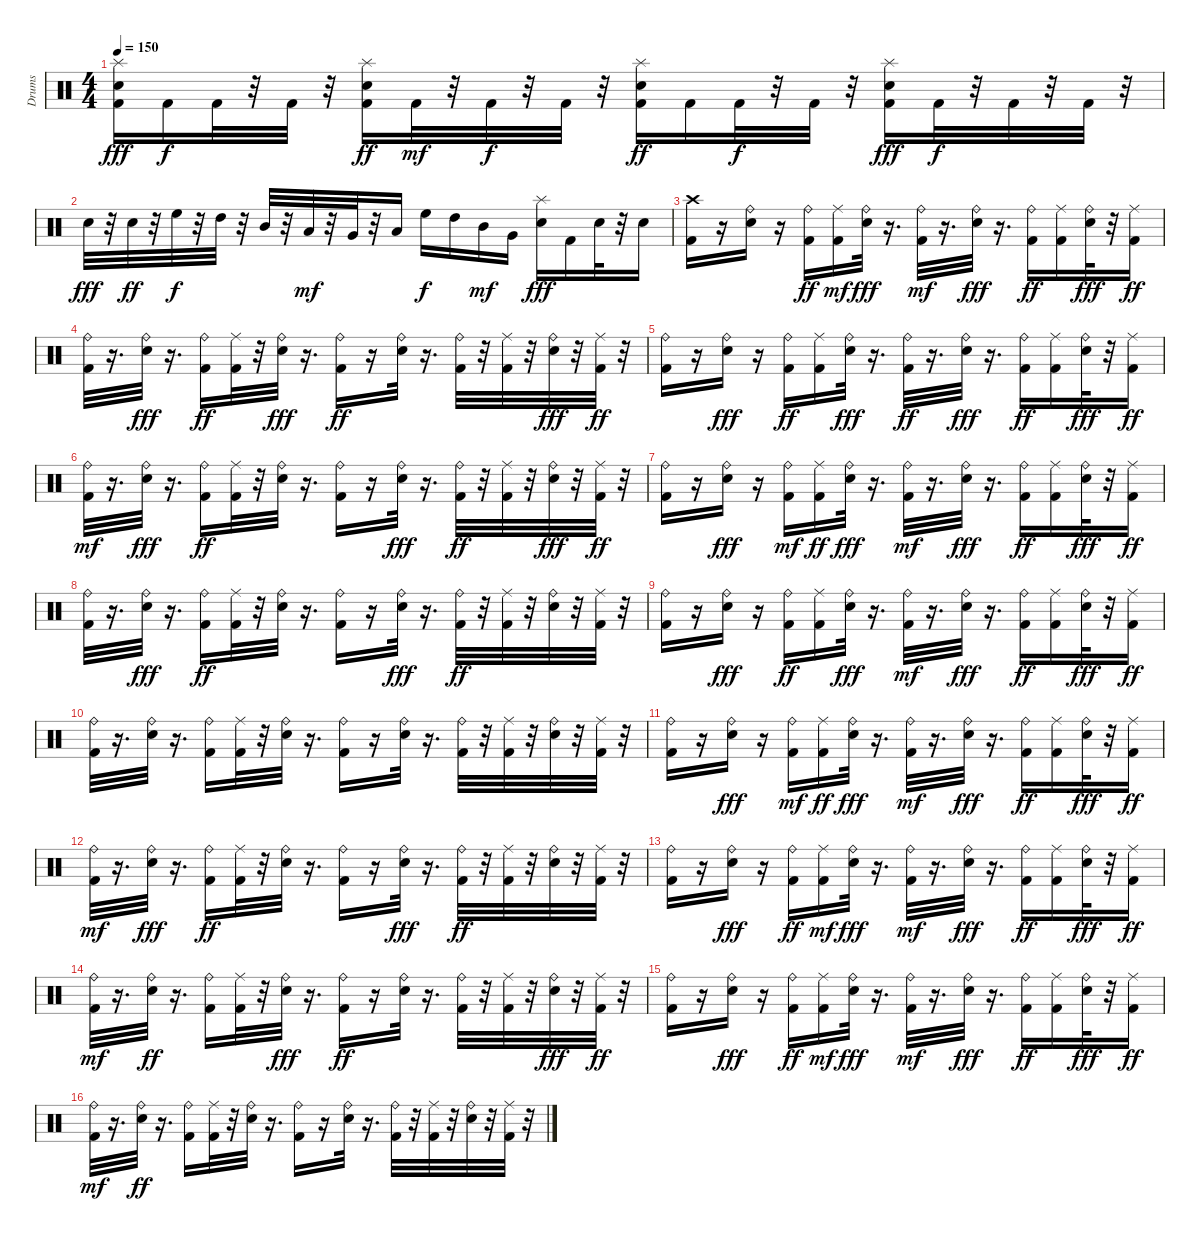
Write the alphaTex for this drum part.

\track ("Drums" "Drums") {instrument percussion}
\staff {score}
\articulation defaults
\ts (4 4)
\tempo 150
\clef neutral
\ks c
("Kick (hit) 2" "Electric Snare (hit)" "Splash (hit)").16{dy fff} "Kick (hit) 2".16{dy f} "Kick (hit) 2".32 r.32 "Kick (hit) 2".32 r.32 ("Splash (hit)" "Electric Snare (hit)" "Kick (hit) 2").16{dy ff} "Kick (hit) 2".32{dy mf} r.32 "Kick (hit) 2".32{dy f} r.32 "Kick (hit) 2".32 r.32 ("Splash (hit)" "Electric Snare (hit)" "Kick (hit) 2").16{dy ff} "Kick (hit) 2".16 "Kick (hit) 2".32{dy f} r.32 "Kick (hit) 2".32 r.32 ("Kick (hit) 2" "Splash (hit)" "Electric Snare (hit)").16{dy fff} "Kick (hit) 2".32{dy f} r.32 "Kick (hit) 2".32 r.32 "Kick (hit) 2".32 r.32 |
"Electric Snare (hit)".32{dy fff} r.32 "Electric Snare (hit)".32{dy ff} r.32 "High Floor Tom (hit)".32{dy f} r.32 "High Tom (hit)".32 r.32 "Mid Tom (hit)".32 r.32 "Low Tom (hit)".32{dy mf} r.32 "Very Low Tom (hit)".32 r.32 "Low Floor Tom (hit)".16 "High Floor Tom (hit)".16{dy f} "High Tom (hit)".16 "Mid Tom (hit)".16{dy mf} "Very Low Tom (hit)".16 ("Splash (hit)" "Electric Snare (hit)").16{dy fff} "Kick (hit) 2".16 "Electric Snare (hit)".32 r.32 "Electric Snare (hit)".16 |
("Kick (hit) 2" "Crash high (hit)").16 r.16 ("Electric Snare (hit)" "Ride (bell)").16 r.16 ("Ride (bell)" "Kick (hit) 2").16{dy ff} ("Kick (hit) 2" "Ride (middle)").16{dy mf} ("Ride (bell)" "Electric Snare (hit)").32{dy fff} r.16{d} ("Kick (hit) 2" "Ride (bell)").32{dy mf} r.16{d} ("Electric Snare (hit)" "Ride (bell)").32{dy fff} r.16{d} ("Kick (hit) 2" "Ride (bell)").16{dy ff} ("Kick (hit) 2" "Ride (middle)").16 ("Electric Snare (hit)" "Ride (bell)").32{dy fff} r.32 ("Ride (middle)" "Kick (hit) 2").16{dy ff} |
("Ride (bell)" "Kick (hit) 2").32 r.16{d} ("Ride (bell)" "Electric Snare (hit)").32{dy fff} r.16{d} ("Ride (bell)" "Kick (hit) 2").16{dy ff} ("Kick (hit) 2" "Ride (middle)").32 r.32 ("Ride (bell)" "Electric Snare (hit)").32{dy fff} r.16{d} ("Kick (hit) 2" "Ride (bell)").16{dy ff} r.16 ("Electric Snare (hit)" "Ride (bell)").32 r.16{d} ("Ride (bell)" "Kick (hit) 2").32 r.32 ("Kick (hit) 2" "Ride (middle)").32 r.32 ("Ride (bell)" "Electric Snare (hit)").32{dy fff} r.32 ("Ride (middle)" "Kick (hit) 2").32{dy ff} r.32 |
("Ride (bell)" "Kick (hit) 2").16 r.16 ("Electric Snare (hit)" "Ride (bell)").16{dy fff} r.16 ("Ride (bell)" "Kick (hit) 2").16{dy ff} ("Ride (middle)" "Kick (hit) 2").16 ("Electric Snare (hit)" "Ride (bell)").32{dy fff} r.16{d} ("Ride (bell)" "Kick (hit) 2").32{dy ff} r.16{d} ("Ride (bell)" "Electric Snare (hit)").32{dy fff} r.16{d} ("Ride (bell)" "Kick (hit) 2").16{dy ff} ("Kick (hit) 2" "Ride (middle)").16 ("Ride (bell)" "Electric Snare (hit)").32{dy fff} r.32 ("Ride (middle)" "Kick (hit) 2").16{dy ff} |
("Kick (hit) 2" "Ride (bell)").32{dy mf} r.16{d} ("Ride (bell)" "Electric Snare (hit)").32{dy fff} r.16{d} ("Ride (bell)" "Kick (hit) 2").16{dy ff} ("Kick (hit) 2" "Ride (middle)").32 r.32 ("Electric Snare (hit)" "Ride (bell)").32 r.16{d} ("Kick (hit) 2" "Ride (bell)").16 r.16 ("Ride (bell)" "Electric Snare (hit)").32{dy fff} r.16{d} ("Kick (hit) 2" "Ride (bell)").32{dy ff} r.32 ("Kick (hit) 2" "Ride (middle)").32 r.32 ("Ride (bell)" "Electric Snare (hit)").32{dy fff} r.32 ("Kick (hit) 2" "Ride (middle)").32{dy ff} r.32 |
("Ride (bell)" "Kick (hit) 2").16 r.16 ("Electric Snare (hit)" "Ride (bell)").16{dy fff} r.16 ("Kick (hit) 2" "Ride (bell)").16{dy mf} ("Ride (middle)" "Kick (hit) 2").16{dy ff} ("Electric Snare (hit)" "Ride (bell)").32{dy fff} r.16{d} ("Kick (hit) 2" "Ride (bell)").32{dy mf} r.16{d} ("Ride (bell)" "Electric Snare (hit)").32{dy fff} r.16{d} ("Kick (hit) 2" "Ride (bell)").16{dy ff} ("Ride (middle)" "Kick (hit) 2").16 ("Electric Snare (hit)" "Ride (bell)").32{dy fff} r.32 ("Kick (hit) 2" "Ride (middle)").16{dy ff} |
("Ride (bell)" "Kick (hit) 2").32 r.16{d} ("Ride (bell)" "Electric Snare (hit)").32{dy fff} r.16{d} ("Kick (hit) 2" "Ride (bell)").16{dy ff} ("Kick (hit) 2" "Ride (middle)").32 r.32 ("Electric Snare (hit)" "Ride (bell)").32 r.16{d} ("Ride (bell)" "Kick (hit) 2").16 r.16 ("Ride (bell)" "Electric Snare (hit)").32{dy fff} r.16{d} ("Ride (bell)" "Kick (hit) 2").32{dy ff} r.32 ("Ride (middle)" "Kick (hit) 2").32 r.32 ("Electric Snare (hit)" "Ride (bell)").32 r.32 ("Ride (middle)" "Kick (hit) 2").32 r.32 |
("Ride (bell)" "Kick (hit) 2").16 r.16 ("Electric Snare (hit)" "Ride (bell)").16{dy fff} r.16 ("Ride (bell)" "Kick (hit) 2").16{dy ff} ("Ride (middle)" "Kick (hit) 2").16 ("Electric Snare (hit)" "Ride (bell)").32{dy fff} r.16{d} ("Kick (hit) 2" "Ride (bell)").32{dy mf} r.16{d} ("Electric Snare (hit)" "Ride (bell)").32{dy fff} r.16{d} ("Ride (bell)" "Kick (hit) 2").16{dy ff} ("Kick (hit) 2" "Ride (middle)").16 ("Electric Snare (hit)" "Ride (bell)").32{dy fff} r.32 ("Kick (hit) 2" "Ride (middle)").16{dy ff} |
("Ride (bell)" "Kick (hit) 2").32 r.16{d} ("Electric Snare (hit)" "Ride (bell)").32 r.16{d} ("Kick (hit) 2" "Ride (bell)").16 ("Ride (middle)" "Kick (hit) 2").32 r.32 ("Electric Snare (hit)" "Ride (bell)").32 r.16{d} ("Ride (bell)" "Kick (hit) 2").16 r.16 ("Electric Snare (hit)" "Ride (bell)").32 r.16{d} ("Ride (bell)" "Kick (hit) 2").32 r.32 ("Kick (hit) 2" "Ride (middle)").32 r.32 ("Electric Snare (hit)" "Ride (bell)").32 r.32 ("Ride (middle)" "Kick (hit) 2").32 r.32 |
("Kick (hit) 2" "Ride (bell)").16 r.16 ("Ride (bell)" "Electric Snare (hit)").16{dy fff} r.16 ("Kick (hit) 2" "Ride (bell)").16{dy mf} ("Ride (middle)" "Kick (hit) 2").16{dy ff} ("Ride (bell)" "Electric Snare (hit)").32{dy fff} r.16{d} ("Kick (hit) 2" "Ride (bell)").32{dy mf} r.16{d} ("Ride (bell)" "Electric Snare (hit)").32{dy fff} r.16{d} ("Kick (hit) 2" "Ride (bell)").16{dy ff} ("Ride (middle)" "Kick (hit) 2").16 ("Electric Snare (hit)" "Ride (bell)").32{dy fff} r.32 ("Ride (middle)" "Kick (hit) 2").16{dy ff} |
("Kick (hit) 2" "Ride (bell)").32{dy mf} r.16{d} ("Ride (bell)" "Electric Snare (hit)").32{dy fff} r.16{d} ("Kick (hit) 2" "Ride (bell)").16{dy ff} ("Ride (middle)" "Kick (hit) 2").32 r.32 ("Electric Snare (hit)" "Ride (bell)").32 r.16{d} ("Ride (bell)" "Kick (hit) 2").16 r.16 ("Ride (bell)" "Electric Snare (hit)").32{dy fff} r.16{d} ("Kick (hit) 2" "Ride (bell)").32{dy ff} r.32 ("Ride (middle)" "Kick (hit) 2").32 r.32 ("Electric Snare (hit)" "Ride (bell)").32 r.32 ("Ride (middle)" "Kick (hit) 2").32 r.32 |
("Ride (bell)" "Kick (hit) 2").16 r.16 ("Ride (bell)" "Electric Snare (hit)").16{dy fff} r.16 ("Ride (bell)" "Kick (hit) 2").16{dy ff} ("Kick (hit) 2" "Ride (middle)").16{dy mf} ("Ride (bell)" "Electric Snare (hit)").32{dy fff} r.16{d} ("Kick (hit) 2" "Ride (bell)").32{dy mf} r.16{d} ("Ride (bell)" "Electric Snare (hit)").32{dy fff} r.16{d} ("Kick (hit) 2" "Ride (bell)").16{dy ff} ("Ride (middle)" "Kick (hit) 2").16 ("Ride (bell)" "Electric Snare (hit)").32{dy fff} r.32 ("Kick (hit) 2" "Ride (middle)").16{dy ff} |
("Kick (hit) 2" "Ride (bell)").32{dy mf} r.16{d} ("Electric Snare (hit)" "Ride (bell)").32{dy ff} r.16{d} ("Ride (bell)" "Kick (hit) 2").16 ("Kick (hit) 2" "Ride (middle)").32 r.32 ("Ride (bell)" "Electric Snare (hit)").32{dy fff} r.16{d} ("Kick (hit) 2" "Ride (bell)").16{dy ff} r.16 ("Electric Snare (hit)" "Ride (bell)").32 r.16{d} ("Ride (bell)" "Kick (hit) 2").32 r.32 ("Kick (hit) 2" "Ride (middle)").32 r.32 ("Ride (bell)" "Electric Snare (hit)").32{dy fff} r.32 ("Kick (hit) 2" "Ride (middle)").32{dy ff} r.32 |
("Ride (bell)" "Kick (hit) 2").16 r.16 ("Electric Snare (hit)" "Ride (bell)").16{dy fff} r.16 ("Ride (bell)" "Kick (hit) 2").16{dy ff} ("Kick (hit) 2" "Ride (middle)").16{dy mf} ("Electric Snare (hit)" "Ride (bell)").32{dy fff} r.16{d} ("Kick (hit) 2" "Ride (bell)").32{dy mf} r.16{d} ("Electric Snare (hit)" "Ride (bell)").32{dy fff} r.16{d} ("Ride (bell)" "Kick (hit) 2").16{dy ff} ("Kick (hit) 2" "Ride (middle)").16 ("Ride (bell)" "Electric Snare (hit)").32{dy fff} r.32 ("Ride (middle)" "Kick (hit) 2").16{dy ff} |
("Kick (hit) 2" "Ride (bell)").32{dy mf} r.16{d} ("Electric Snare (hit)" "Ride (bell)").32{dy ff} r.16{d} ("Ride (bell)" "Kick (hit) 2").16 ("Ride (middle)" "Kick (hit) 2").32 r.32 ("Electric Snare (hit)" "Ride (bell)").32 r.16{d} ("Kick (hit) 2" "Ride (bell)").16 r.16 ("Electric Snare (hit)" "Ride (bell)").32 r.16{d} ("Kick (hit) 2" "Ride (bell)").32 r.32 ("Kick (hit) 2" "Ride (middle)").32 r.32 ("Electric Snare (hit)" "Ride (bell)").32 r.32 ("Ride (middle)" "Kick (hit) 2").32 r.32
